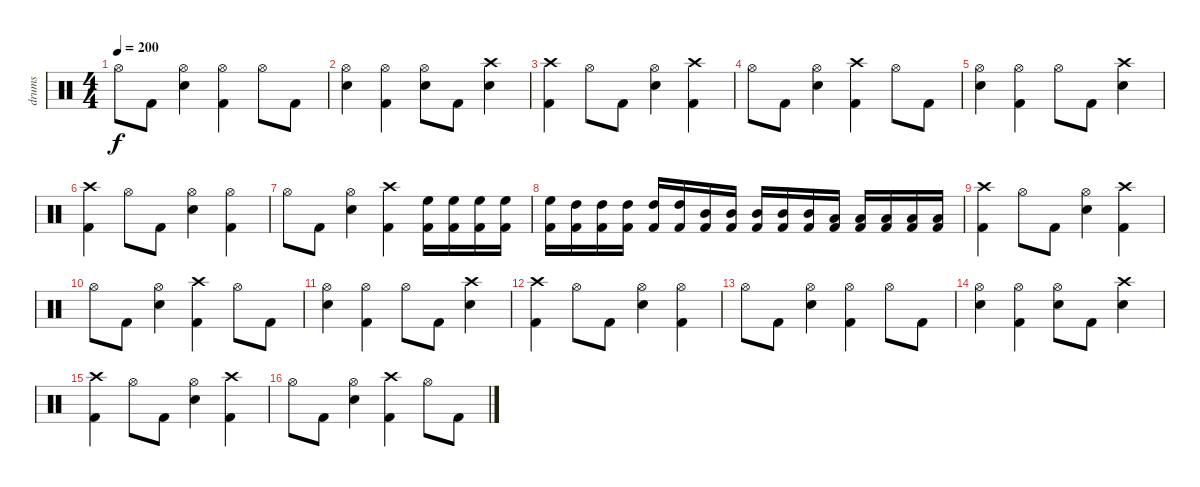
\track ("drums" "drums") {instrument percussion}
\staff {score}
\articulation defaults
\ts (4 4)
\tempo 200
\clef neutral
\ks c "Hi-Hat (open)".8{dy f} "Kick (hit) 2".8
("Snare (hit) 2" "Hi-Hat (open)").4 ("Kick (hit) 2" "Hi-Hat (open)").4 "Hi-Hat (open)".8 "Kick (hit) 2".8 |
("Snare (hit) 2" "Hi-Hat (open)").4 ("Kick (hit) 2" "Hi-Hat (open)").4 ("Snare (hit) 2" "Hi-Hat (open)").8 "Kick (hit) 2".8 ("Snare (hit) 2" "Crash high (hit)").4 |
("Kick (hit) 2" "Crash high (hit)").4 "Hi-Hat (open)".8 "Kick (hit) 2".8 ("Snare (hit) 2" "Hi-Hat (open)").4 ("Kick (hit) 2" "Crash high (hit)").4 |
"Hi-Hat (open)".8 "Kick (hit) 2".8 ("Snare (hit) 2" "Hi-Hat (open)").4 ("Kick (hit) 2" "Crash high (hit)").4 "Hi-Hat (open)".8 "Kick (hit) 2".8 |
("Snare (hit) 2" "Hi-Hat (open)").4 ("Kick (hit) 2" "Hi-Hat (open)").4 "Hi-Hat (open)".8 "Kick (hit) 2".8 ("Snare (hit) 2" "Crash high (hit)").4 |
("Kick (hit) 2" "Crash high (hit)").4 "Hi-Hat (open)".8 "Kick (hit) 2".8 ("Snare (hit) 2" "Hi-Hat (open)").4 ("Kick (hit) 2" "Hi-Hat (open)").4 |
"Hi-Hat (open)".8 "Kick (hit) 2".8 ("Snare (hit) 2" "Hi-Hat (open)").4 ("Kick (hit) 2" "Crash high (hit)").4 ("Kick (hit) 2" "High Floor Tom (hit)").16 ("Kick (hit) 2" "High Floor Tom (hit)").16 ("Kick (hit) 2" "High Floor Tom (hit)").16 ("Kick (hit) 2" "High Floor Tom (hit)").16 |
("Kick (hit) 2" "High Floor Tom (hit)").16 ("Kick (hit) 2" "High Tom (hit)").16 ("Kick (hit) 2" "High Tom (hit)").16 ("Kick (hit) 2" "High Tom (hit)").16 ("Kick (hit) 2" "High Tom (hit)").16 ("Kick (hit) 2" "High Tom (hit)").16 ("Kick (hit) 2" "Mid Tom (hit)").16 ("Kick (hit) 2" "Mid Tom (hit)").16 ("Kick (hit) 2" "Mid Tom (hit)").16 ("Kick (hit) 2" "Mid Tom (hit)").16 ("Kick (hit) 2" "Mid Tom (hit)").16 ("Kick (hit) 2" "Low Tom (hit)").16 ("Kick (hit) 2" "Low Tom (hit)").16 ("Kick (hit) 2" "Low Tom (hit)").16 ("Kick (hit) 2" "Low Tom (hit)").16 ("Kick (hit) 2" "Low Tom (hit)").16 |
("Kick (hit) 2" "Crash high (hit)").4 "Hi-Hat (open)".8 "Kick (hit) 2".8 ("Snare (hit) 2" "Hi-Hat (open)").4 ("Kick (hit) 2" "Crash high (hit)").4 |
"Hi-Hat (open)".8 "Kick (hit) 2".8 ("Snare (hit) 2" "Hi-Hat (open)").4 ("Kick (hit) 2" "Crash high (hit)").4 "Hi-Hat (open)".8 "Kick (hit) 2".8 |
("Snare (hit) 2" "Hi-Hat (open)").4 ("Kick (hit) 2" "Hi-Hat (open)").4 "Hi-Hat (open)".8 "Kick (hit) 2".8 ("Snare (hit) 2" "Crash high (hit)").4 |
("Kick (hit) 2" "Crash high (hit)").4 "Hi-Hat (open)".8 "Kick (hit) 2".8 ("Snare (hit) 2" "Hi-Hat (open)").4 ("Kick (hit) 2" "Hi-Hat (open)").4 |
"Hi-Hat (open)".8 "Kick (hit) 2".8 ("Snare (hit) 2" "Hi-Hat (open)").4 ("Kick (hit) 2" "Hi-Hat (open)").4 "Hi-Hat (open)".8 "Kick (hit) 2".8 |
("Snare (hit) 2" "Hi-Hat (open)").4 ("Kick (hit) 2" "Hi-Hat (open)").4 ("Snare (hit) 2" "Hi-Hat (open)").8 "Kick (hit) 2".8 ("Snare (hit) 2" "Crash high (hit)").4 |
("Kick (hit) 2" "Crash high (hit)").4 "Hi-Hat (open)".8 "Kick (hit) 2".8 ("Snare (hit) 2" "Hi-Hat (open)").4 ("Kick (hit) 2" "Crash high (hit)").4 |
"Hi-Hat (open)".8 "Kick (hit) 2".8 ("Snare (hit) 2" "Hi-Hat (open)").4 ("Kick (hit) 2" "Crash high (hit)").4 "Hi-Hat (open)".8 "Kick (hit) 2".8
